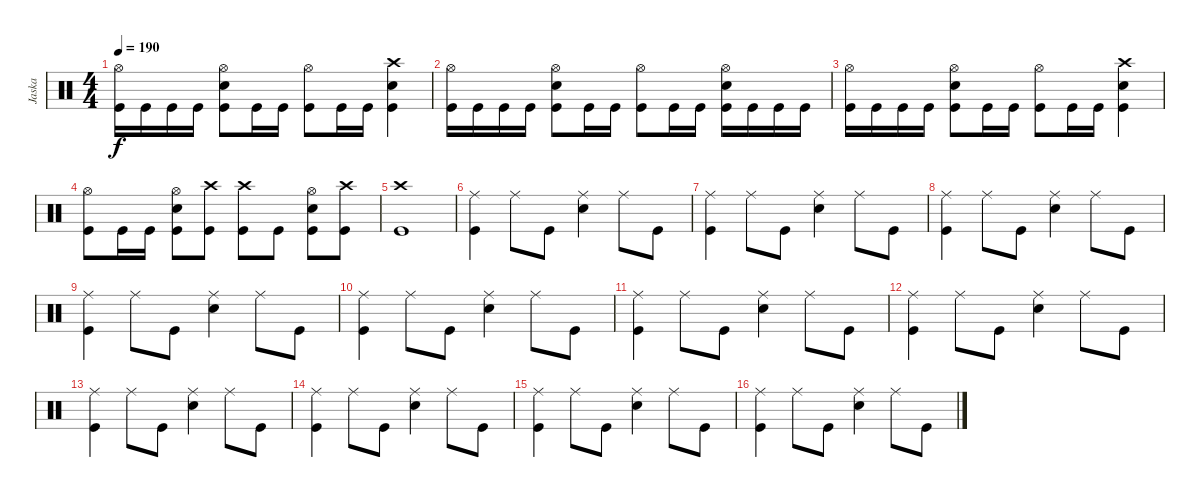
\track ("Jaska" "Jaska") {instrument percussion}
\staff {score}
\articulation defaults
\ts (4 4)
\tempo 190
\clef neutral
\ks c
("Hi-Hat (open)" "Kick (hit)").16{dy f} "Kick (hit)".16 "Kick (hit)".16 "Kick (hit)".16 ("Hi-Hat (open)" "Snare (hit) 2" "Kick (hit)").8 "Kick (hit)".16 "Kick (hit)".16 ("Hi-Hat (open)" "Kick (hit)").8 "Kick (hit)".16 "Kick (hit)".16 ("Crash high (hit)" "Snare (hit) 2" "Kick (hit)").4 |
("Hi-Hat (open)" "Kick (hit)").16 "Kick (hit)".16 "Kick (hit)".16 "Kick (hit)".16 ("Hi-Hat (open)" "Snare (hit) 2" "Kick (hit)").8 "Kick (hit)".16 "Kick (hit)".16 ("Hi-Hat (open)" "Kick (hit)").8 "Kick (hit)".16 "Kick (hit)".16 ("Hi-Hat (open)" "Snare (hit) 2" "Kick (hit)").16 "Kick (hit)".16 "Kick (hit)".16 "Kick (hit)".16 |
("Hi-Hat (open)" "Kick (hit)").16 "Kick (hit)".16 "Kick (hit)".16 "Kick (hit)".16 ("Hi-Hat (open)" "Snare (hit) 2" "Kick (hit)").8 "Kick (hit)".16 "Kick (hit)".16 ("Hi-Hat (open)" "Kick (hit)").8 "Kick (hit)".16 "Kick (hit)".16 ("Crash high (hit)" "Snare (hit) 2" "Kick (hit)").4 |
("Hi-Hat (open)" "Kick (hit)").8 "Kick (hit)".16 "Kick (hit)".16 ("Hi-Hat (open)" "Snare (hit) 2" "Kick (hit)").8 ("Crash high (hit)" "Kick (hit)").8 ("Crash high (hit)" "Kick (hit)").8 "Kick (hit)".8 ("Hi-Hat (open)" "Snare (hit) 2" "Kick (hit)").8 ("Crash high (hit)" "Kick (hit)").8 |
("Crash high (hit)" "Kick (hit)").1 |
("Ride (middle)" "Kick (hit)").4 "Ride (middle)".8 "Kick (hit)".8 ("Ride (middle)" "Snare (hit) 2").4 "Ride (middle)".8 "Kick (hit)".8 |
("Ride (middle)" "Kick (hit)").4 "Ride (middle)".8 "Kick (hit)".8 ("Ride (middle)" "Snare (hit) 2").4 "Ride (middle)".8 "Kick (hit)".8 |
("Ride (middle)" "Kick (hit)").4 "Ride (middle)".8 "Kick (hit)".8 ("Ride (middle)" "Snare (hit) 2").4 "Ride (middle)".8 "Kick (hit)".8 |
("Ride (middle)" "Kick (hit)").4 "Ride (middle)".8 "Kick (hit)".8 ("Ride (middle)" "Snare (hit) 2").4 "Ride (middle)".8 "Kick (hit)".8 |
("Ride (middle)" "Kick (hit)").4 "Ride (middle)".8 "Kick (hit)".8 ("Ride (middle)" "Snare (hit) 2").4 "Ride (middle)".8 "Kick (hit)".8 |
("Ride (middle)" "Kick (hit)").4 "Ride (middle)".8 "Kick (hit)".8 ("Ride (middle)" "Snare (hit) 2").4 "Ride (middle)".8 "Kick (hit)".8 |
("Ride (middle)" "Kick (hit)").4 "Ride (middle)".8 "Kick (hit)".8 ("Ride (middle)" "Snare (hit) 2").4 "Ride (middle)".8 "Kick (hit)".8 |
("Ride (middle)" "Kick (hit)").4 "Ride (middle)".8 "Kick (hit)".8 ("Ride (middle)" "Snare (hit) 2").4 "Ride (middle)".8 "Kick (hit)".8 |
("Ride (middle)" "Kick (hit)").4 "Ride (middle)".8 "Kick (hit)".8 ("Ride (middle)" "Snare (hit) 2").4 "Ride (middle)".8 "Kick (hit)".8 |
("Ride (middle)" "Kick (hit)").4 "Ride (middle)".8 "Kick (hit)".8 ("Ride (middle)" "Snare (hit) 2").4 "Ride (middle)".8 "Kick (hit)".8 |
("Ride (middle)" "Kick (hit)").4 "Ride (middle)".8 "Kick (hit)".8 ("Ride (middle)" "Snare (hit) 2").4 "Ride (middle)".8 "Kick (hit)".8
